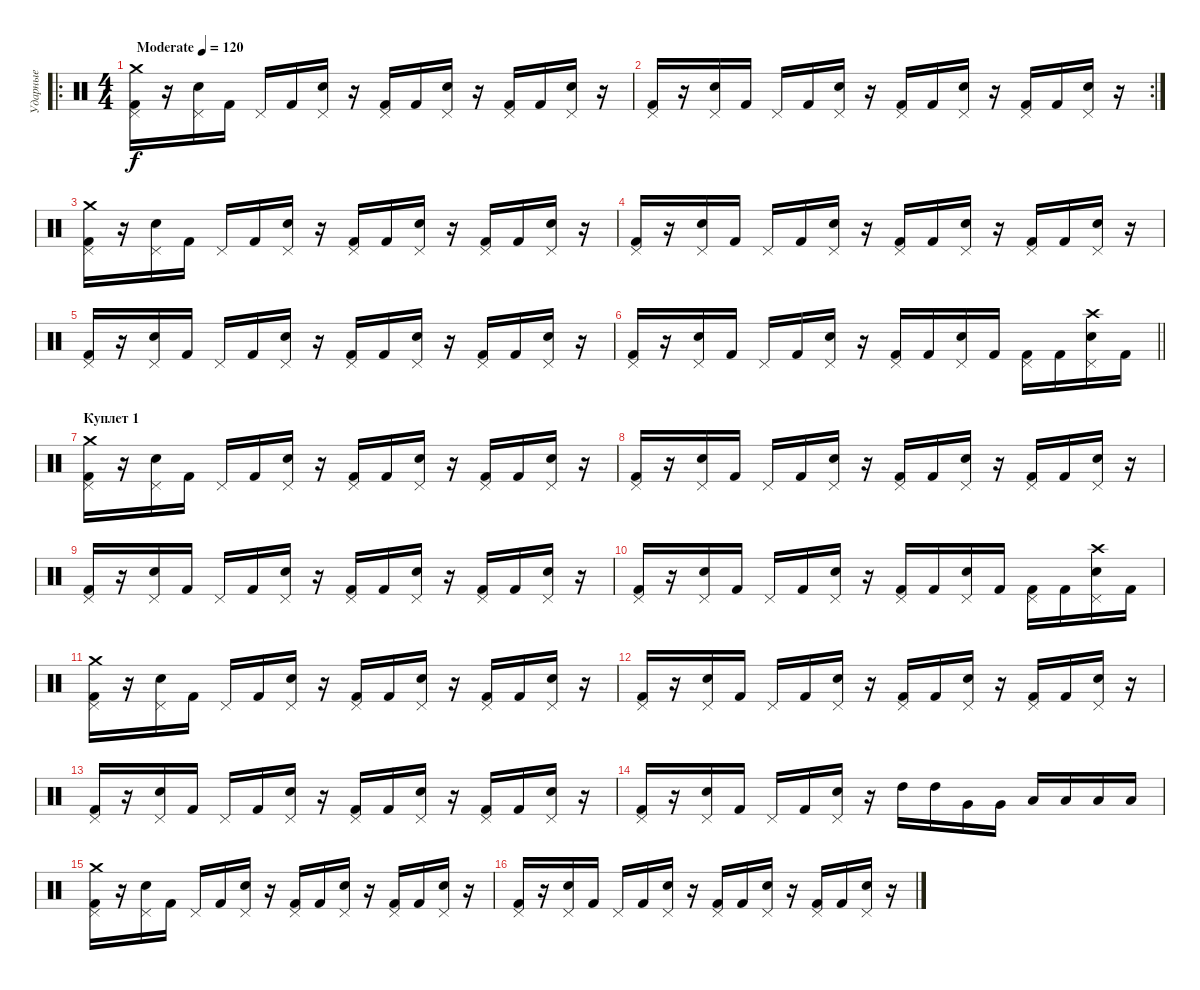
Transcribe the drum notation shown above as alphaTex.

\track ("Ударные" "Ударные") {instrument percussion}
\staff {score}
\articulation defaults
\ro
\ts (4 4)
\tempo (120 "Moderate")
\clef neutral
\ks c
("Kick (hit) 2" "Pedal Hi-Hat (hit)" "Crash medium (hit)").16{dy f} r.16 ("Snare (hit) 2" "Pedal Hi-Hat (hit)").16 "Kick (hit) 2".16 "Pedal Hi-Hat (hit)".16 "Kick (hit) 2".16 ("Snare (hit) 2" "Pedal Hi-Hat (hit)").16 r.16 ("Kick (hit) 2" "Pedal Hi-Hat (hit)").16 "Kick (hit) 2".16 ("Snare (hit) 2" "Pedal Hi-Hat (hit)").16 r.16 ("Kick (hit) 2" "Pedal Hi-Hat (hit)").16 "Kick (hit) 2".16 ("Snare (hit) 2" "Pedal Hi-Hat (hit)").16 r.16 |
\rc 2
("Kick (hit) 2" "Pedal Hi-Hat (hit)").16 r.16 ("Snare (hit) 2" "Pedal Hi-Hat (hit)").16 "Kick (hit) 2".16 "Pedal Hi-Hat (hit)".16 "Kick (hit) 2".16 ("Snare (hit) 2" "Pedal Hi-Hat (hit)").16 r.16 ("Kick (hit) 2" "Pedal Hi-Hat (hit)").16 "Kick (hit) 2".16 ("Snare (hit) 2" "Pedal Hi-Hat (hit)").16 r.16 ("Kick (hit) 2" "Pedal Hi-Hat (hit)").16 "Kick (hit) 2".16 ("Snare (hit) 2" "Pedal Hi-Hat (hit)").16 r.16 |
("Kick (hit) 2" "Pedal Hi-Hat (hit)" "Crash medium (hit)").16 r.16 ("Snare (hit) 2" "Pedal Hi-Hat (hit)").16 "Kick (hit) 2".16 "Pedal Hi-Hat (hit)".16 "Kick (hit) 2".16 ("Snare (hit) 2" "Pedal Hi-Hat (hit)").16 r.16 ("Kick (hit) 2" "Pedal Hi-Hat (hit)").16 "Kick (hit) 2".16 ("Snare (hit) 2" "Pedal Hi-Hat (hit)").16 r.16 ("Kick (hit) 2" "Pedal Hi-Hat (hit)").16 "Kick (hit) 2".16 ("Snare (hit) 2" "Pedal Hi-Hat (hit)").16 r.16 |
("Kick (hit) 2" "Pedal Hi-Hat (hit)").16 r.16 ("Snare (hit) 2" "Pedal Hi-Hat (hit)").16 "Kick (hit) 2".16 "Pedal Hi-Hat (hit)".16 "Kick (hit) 2".16 ("Snare (hit) 2" "Pedal Hi-Hat (hit)").16 r.16 ("Kick (hit) 2" "Pedal Hi-Hat (hit)").16 "Kick (hit) 2".16 ("Snare (hit) 2" "Pedal Hi-Hat (hit)").16 r.16 ("Kick (hit) 2" "Pedal Hi-Hat (hit)").16 "Kick (hit) 2".16 ("Snare (hit) 2" "Pedal Hi-Hat (hit)").16 r.16 |
("Kick (hit) 2" "Pedal Hi-Hat (hit)").16 r.16 ("Snare (hit) 2" "Pedal Hi-Hat (hit)").16 "Kick (hit) 2".16 "Pedal Hi-Hat (hit)".16 "Kick (hit) 2".16 ("Snare (hit) 2" "Pedal Hi-Hat (hit)").16 r.16 ("Kick (hit) 2" "Pedal Hi-Hat (hit)").16 "Kick (hit) 2".16 ("Snare (hit) 2" "Pedal Hi-Hat (hit)").16 r.16 ("Kick (hit) 2" "Pedal Hi-Hat (hit)").16 "Kick (hit) 2".16 ("Snare (hit) 2" "Pedal Hi-Hat (hit)").16 r.16 |
\barLineRight lightlight
("Kick (hit) 2" "Pedal Hi-Hat (hit)").16 r.16 ("Snare (hit) 2" "Pedal Hi-Hat (hit)").16 "Kick (hit) 2".16 "Pedal Hi-Hat (hit)".16 "Kick (hit) 2".16 ("Snare (hit) 2" "Pedal Hi-Hat (hit)").16 r.16 ("Kick (hit) 2" "Pedal Hi-Hat (hit)").16 "Kick (hit) 2".16 ("Snare (hit) 2" "Pedal Hi-Hat (hit)").16 "Kick (hit) 2".16 ("Kick (hit) 2" "Pedal Hi-Hat (hit)").16 "Kick (hit) 2".16 ("Snare (hit) 2" "Pedal Hi-Hat (hit)" "Crash high (hit)").16 "Kick (hit) 2".16 |
\section ("" "Куплет 1")
("Kick (hit) 2" "Pedal Hi-Hat (hit)" "Crash medium (hit)").16 r.16 ("Snare (hit) 2" "Pedal Hi-Hat (hit)").16 "Kick (hit) 2".16 "Pedal Hi-Hat (hit)".16 "Kick (hit) 2".16 ("Snare (hit) 2" "Pedal Hi-Hat (hit)").16 r.16 ("Kick (hit) 2" "Pedal Hi-Hat (hit)").16 "Kick (hit) 2".16 ("Snare (hit) 2" "Pedal Hi-Hat (hit)").16 r.16 ("Kick (hit) 2" "Pedal Hi-Hat (hit)").16 "Kick (hit) 2".16 ("Snare (hit) 2" "Pedal Hi-Hat (hit)").16 r.16 |
("Kick (hit) 2" "Pedal Hi-Hat (hit)").16 r.16 ("Snare (hit) 2" "Pedal Hi-Hat (hit)").16 "Kick (hit) 2".16 "Pedal Hi-Hat (hit)".16 "Kick (hit) 2".16 ("Snare (hit) 2" "Pedal Hi-Hat (hit)").16 r.16 ("Kick (hit) 2" "Pedal Hi-Hat (hit)").16 "Kick (hit) 2".16 ("Snare (hit) 2" "Pedal Hi-Hat (hit)").16 r.16 ("Kick (hit) 2" "Pedal Hi-Hat (hit)").16 "Kick (hit) 2".16 ("Snare (hit) 2" "Pedal Hi-Hat (hit)").16 r.16 |
("Kick (hit) 2" "Pedal Hi-Hat (hit)").16 r.16 ("Snare (hit) 2" "Pedal Hi-Hat (hit)").16 "Kick (hit) 2".16 "Pedal Hi-Hat (hit)".16 "Kick (hit) 2".16 ("Snare (hit) 2" "Pedal Hi-Hat (hit)").16 r.16 ("Kick (hit) 2" "Pedal Hi-Hat (hit)").16 "Kick (hit) 2".16 ("Snare (hit) 2" "Pedal Hi-Hat (hit)").16 r.16 ("Kick (hit) 2" "Pedal Hi-Hat (hit)").16 "Kick (hit) 2".16 ("Snare (hit) 2" "Pedal Hi-Hat (hit)").16 r.16 |
("Kick (hit) 2" "Pedal Hi-Hat (hit)").16 r.16 ("Snare (hit) 2" "Pedal Hi-Hat (hit)").16 "Kick (hit) 2".16 "Pedal Hi-Hat (hit)".16 "Kick (hit) 2".16 ("Snare (hit) 2" "Pedal Hi-Hat (hit)").16 r.16 ("Kick (hit) 2" "Pedal Hi-Hat (hit)").16 "Kick (hit) 2".16 ("Snare (hit) 2" "Pedal Hi-Hat (hit)").16 "Kick (hit) 2".16 ("Kick (hit) 2" "Pedal Hi-Hat (hit)").16 "Kick (hit) 2".16 ("Snare (hit) 2" "Pedal Hi-Hat (hit)" "Crash high (hit)").16 "Kick (hit) 2".16 |
("Kick (hit) 2" "Pedal Hi-Hat (hit)" "Crash medium (hit)").16 r.16 ("Snare (hit) 2" "Pedal Hi-Hat (hit)").16 "Kick (hit) 2".16 "Pedal Hi-Hat (hit)".16 "Kick (hit) 2".16 ("Snare (hit) 2" "Pedal Hi-Hat (hit)").16 r.16 ("Kick (hit) 2" "Pedal Hi-Hat (hit)").16 "Kick (hit) 2".16 ("Snare (hit) 2" "Pedal Hi-Hat (hit)").16 r.16 ("Kick (hit) 2" "Pedal Hi-Hat (hit)").16 "Kick (hit) 2".16 ("Snare (hit) 2" "Pedal Hi-Hat (hit)").16 r.16 |
("Kick (hit) 2" "Pedal Hi-Hat (hit)").16 r.16 ("Snare (hit) 2" "Pedal Hi-Hat (hit)").16 "Kick (hit) 2".16 "Pedal Hi-Hat (hit)".16 "Kick (hit) 2".16 ("Snare (hit) 2" "Pedal Hi-Hat (hit)").16 r.16 ("Kick (hit) 2" "Pedal Hi-Hat (hit)").16 "Kick (hit) 2".16 ("Snare (hit) 2" "Pedal Hi-Hat (hit)").16 r.16 ("Kick (hit) 2" "Pedal Hi-Hat (hit)").16 "Kick (hit) 2".16 ("Snare (hit) 2" "Pedal Hi-Hat (hit)").16 r.16 |
("Kick (hit) 2" "Pedal Hi-Hat (hit)").16 r.16 ("Snare (hit) 2" "Pedal Hi-Hat (hit)").16 "Kick (hit) 2".16 "Pedal Hi-Hat (hit)".16 "Kick (hit) 2".16 ("Snare (hit) 2" "Pedal Hi-Hat (hit)").16 r.16 ("Kick (hit) 2" "Pedal Hi-Hat (hit)").16 "Kick (hit) 2".16 ("Snare (hit) 2" "Pedal Hi-Hat (hit)").16 r.16 ("Kick (hit) 2" "Pedal Hi-Hat (hit)").16 "Kick (hit) 2".16 ("Snare (hit) 2" "Pedal Hi-Hat (hit)").16 r.16 |
("Kick (hit) 2" "Pedal Hi-Hat (hit)").16 r.16 ("Snare (hit) 2" "Pedal Hi-Hat (hit)").16 "Kick (hit) 2".16 "Pedal Hi-Hat (hit)".16 "Kick (hit) 2".16 ("Snare (hit) 2" "Pedal Hi-Hat (hit)").16 r.16 "High Tom (hit)".16 "High Tom (hit)".16 "Very Low Tom (hit)".16 "Very Low Tom (hit)".16 "Low Tom (hit)".16 "Low Tom (hit)".16 "Low Floor Tom (hit)".16 "Low Floor Tom (hit)".16 |
("Kick (hit) 2" "Pedal Hi-Hat (hit)" "Crash medium (hit)").16 r.16 ("Snare (hit) 2" "Pedal Hi-Hat (hit)").16 "Kick (hit) 2".16 "Pedal Hi-Hat (hit)".16 "Kick (hit) 2".16 ("Snare (hit) 2" "Pedal Hi-Hat (hit)").16 r.16 ("Kick (hit) 2" "Pedal Hi-Hat (hit)").16 "Kick (hit) 2".16 ("Snare (hit) 2" "Pedal Hi-Hat (hit)").16 r.16 ("Kick (hit) 2" "Pedal Hi-Hat (hit)").16 "Kick (hit) 2".16 ("Snare (hit) 2" "Pedal Hi-Hat (hit)").16 r.16 |
("Kick (hit) 2" "Pedal Hi-Hat (hit)").16 r.16 ("Snare (hit) 2" "Pedal Hi-Hat (hit)").16 "Kick (hit) 2".16 "Pedal Hi-Hat (hit)".16 "Kick (hit) 2".16 ("Snare (hit) 2" "Pedal Hi-Hat (hit)").16 r.16 ("Kick (hit) 2" "Pedal Hi-Hat (hit)").16 "Kick (hit) 2".16 ("Snare (hit) 2" "Pedal Hi-Hat (hit)").16 r.16 ("Kick (hit) 2" "Pedal Hi-Hat (hit)").16 "Kick (hit) 2".16 ("Snare (hit) 2" "Pedal Hi-Hat (hit)").16 r.16
